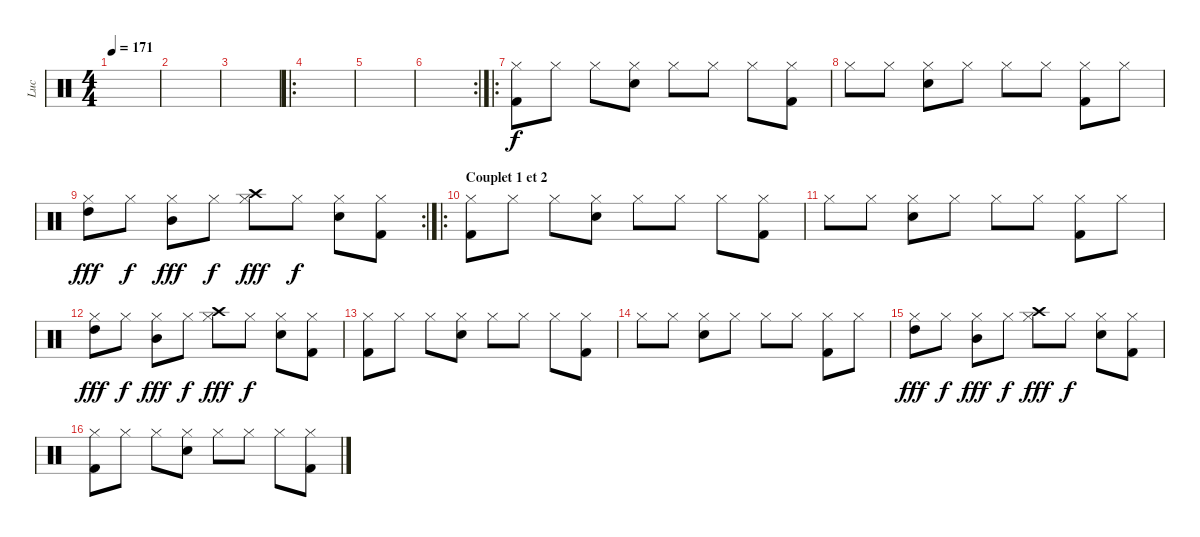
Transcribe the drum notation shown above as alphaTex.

\track ("Luc" "Luc") {instrument percussion}
\staff {score}
\articulation defaults
\ts (4 4)
\tempo 171
\clef neutral
\ks c
|
|
|
\ro
|
|
\rc 2
|
\ro
("Hi-Hat (closed)" "Kick (hit) 2").8 "Hi-Hat (closed)".8 "Hi-Hat (closed)".8 ("Hi-Hat (closed)" "Snare (hit) 2").8 "Hi-Hat (closed)".8 "Hi-Hat (closed)".8 "Hi-Hat (closed)".8 ("Hi-Hat (closed)" "Kick (hit) 2").8 |
"Hi-Hat (closed)".8 "Hi-Hat (closed)".8 ("Hi-Hat (closed)" "Snare (hit) 2").8 "Hi-Hat (closed)".8 "Hi-Hat (closed)".8 "Hi-Hat (closed)".8 ("Hi-Hat (closed)" "Kick (hit) 2").8 "Hi-Hat (closed)".8 |
\rc 2
("Hi-Hat (closed)" "High Tom (hit)").8{dy fff} "Hi-Hat (closed)".8{dy f} ("Hi-Hat (closed)" "Mid Tom (hit)").8{dy fff} "Hi-Hat (closed)".8{dy f} ("Hi-Hat (closed)" "Crash high (hit)").8{dy fff} "Hi-Hat (closed)".8{dy f} ("Hi-Hat (closed)" "Snare (hit) 2").8 ("Hi-Hat (closed)" "Kick (hit) 2").8 |
\ro
\section ("" "Couplet 1 et 2")
("Hi-Hat (closed)" "Kick (hit) 2").8 "Hi-Hat (closed)".8 "Hi-Hat (closed)".8 ("Hi-Hat (closed)" "Snare (hit) 2").8 "Hi-Hat (closed)".8 "Hi-Hat (closed)".8 "Hi-Hat (closed)".8 ("Hi-Hat (closed)" "Kick (hit) 2").8 |
"Hi-Hat (closed)".8 "Hi-Hat (closed)".8 ("Hi-Hat (closed)" "Snare (hit) 2").8 "Hi-Hat (closed)".8 "Hi-Hat (closed)".8 "Hi-Hat (closed)".8 ("Hi-Hat (closed)" "Kick (hit) 2").8 "Hi-Hat (closed)".8 |
("Hi-Hat (closed)" "High Tom (hit)").8{dy fff} "Hi-Hat (closed)".8{dy f} ("Hi-Hat (closed)" "Mid Tom (hit)").8{dy fff} "Hi-Hat (closed)".8{dy f} ("Hi-Hat (closed)" "Crash high (hit)").8{dy fff} "Hi-Hat (closed)".8{dy f} ("Hi-Hat (closed)" "Snare (hit) 2").8 ("Hi-Hat (closed)" "Kick (hit) 2").8 |
("Hi-Hat (closed)" "Kick (hit) 2").8 "Hi-Hat (closed)".8 "Hi-Hat (closed)".8 ("Hi-Hat (closed)" "Snare (hit) 2").8 "Hi-Hat (closed)".8 "Hi-Hat (closed)".8 "Hi-Hat (closed)".8 ("Hi-Hat (closed)" "Kick (hit) 2").8 |
"Hi-Hat (closed)".8 "Hi-Hat (closed)".8 ("Hi-Hat (closed)" "Snare (hit) 2").8 "Hi-Hat (closed)".8 "Hi-Hat (closed)".8 "Hi-Hat (closed)".8 ("Hi-Hat (closed)" "Kick (hit) 2").8 "Hi-Hat (closed)".8 |
("Hi-Hat (closed)" "High Tom (hit)").8{dy fff} "Hi-Hat (closed)".8{dy f} ("Hi-Hat (closed)" "Mid Tom (hit)").8{dy fff} "Hi-Hat (closed)".8{dy f} ("Hi-Hat (closed)" "Crash high (hit)").8{dy fff} "Hi-Hat (closed)".8{dy f} ("Hi-Hat (closed)" "Snare (hit) 2").8 ("Hi-Hat (closed)" "Kick (hit) 2").8 |
("Hi-Hat (closed)" "Kick (hit) 2").8 "Hi-Hat (closed)".8 "Hi-Hat (closed)".8 ("Hi-Hat (closed)" "Snare (hit) 2").8 "Hi-Hat (closed)".8 "Hi-Hat (closed)".8 "Hi-Hat (closed)".8 ("Hi-Hat (closed)" "Kick (hit) 2").8
